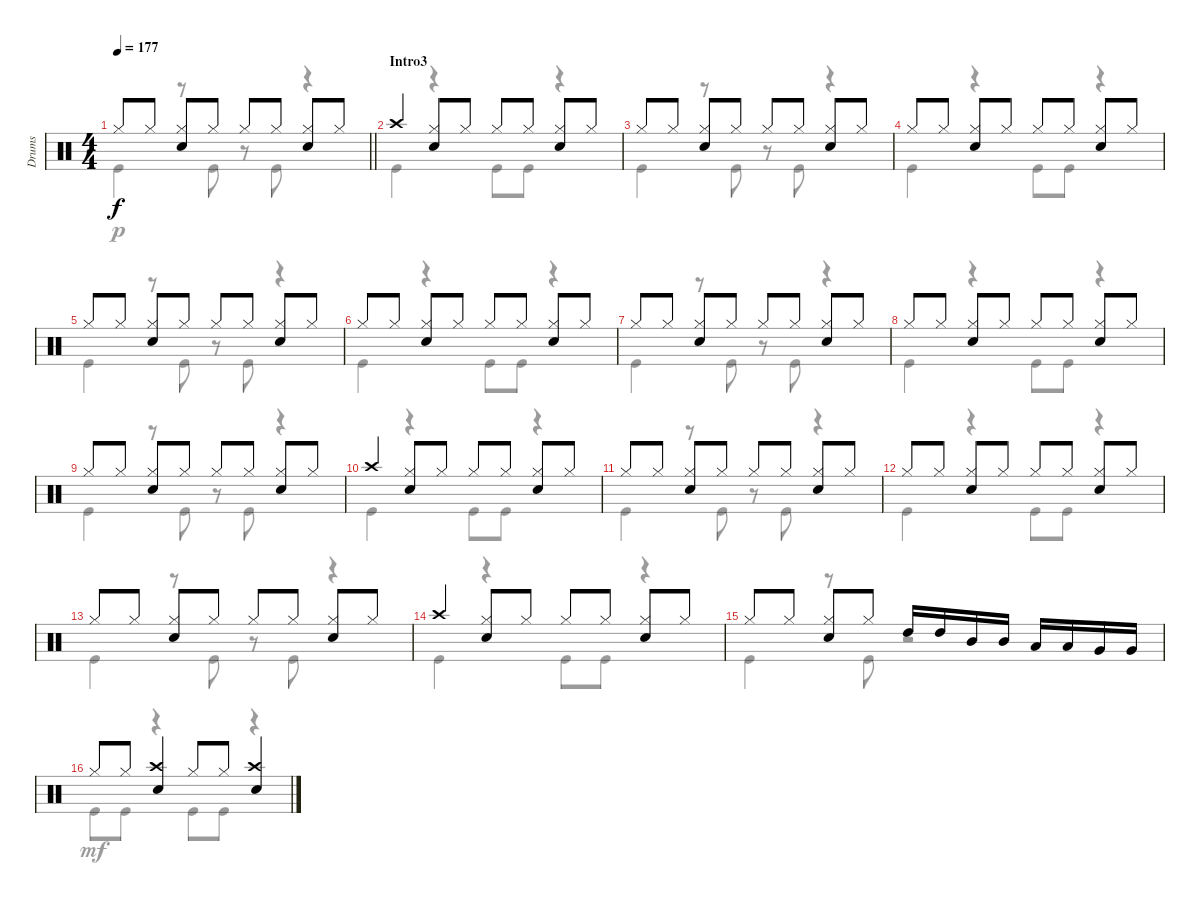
\track ("Drums" "Drums") {instrument percussion}
\staff {score}
\articulation defaults
\voice
\ts (4 4)
\tempo 177
\clef neutral
\barLineRight lightlight
\ks c "Hi-Hat (closed)".8{dy f} "Hi-Hat (closed)".8
("Hi-Hat (closed)" "Snare (hit) 2").8 "Hi-Hat (closed)".8 "Hi-Hat (closed)".8 "Hi-Hat (closed)".8 ("Hi-Hat (closed)" "Snare (hit) 2").8 "Hi-Hat (closed)".8 |
\section ("" "Intro3")
"Crash high (hit)".4 ("Hi-Hat (closed)" "Snare (hit) 2").8 "Hi-Hat (closed)".8 "Hi-Hat (closed)".8 "Hi-Hat (closed)".8 ("Hi-Hat (closed)" "Snare (hit) 2").8 "Hi-Hat (closed)".8 |
"Hi-Hat (closed)".8 "Hi-Hat (closed)".8 ("Hi-Hat (closed)" "Snare (hit) 2").8 "Hi-Hat (closed)".8 "Hi-Hat (closed)".8 "Hi-Hat (closed)".8 ("Hi-Hat (closed)" "Snare (hit) 2").8 "Hi-Hat (closed)".8 |
"Hi-Hat (closed)".8 "Hi-Hat (closed)".8 ("Hi-Hat (closed)" "Snare (hit) 2").8 "Hi-Hat (closed)".8 "Hi-Hat (closed)".8 "Hi-Hat (closed)".8 ("Hi-Hat (closed)" "Snare (hit) 2").8 "Hi-Hat (closed)".8 |
"Hi-Hat (closed)".8 "Hi-Hat (closed)".8 ("Hi-Hat (closed)" "Snare (hit) 2").8 "Hi-Hat (closed)".8 "Hi-Hat (closed)".8 "Hi-Hat (closed)".8 ("Hi-Hat (closed)" "Snare (hit) 2").8 "Hi-Hat (closed)".8 |
"Hi-Hat (closed)".8 "Hi-Hat (closed)".8 ("Hi-Hat (closed)" "Snare (hit) 2").8 "Hi-Hat (closed)".8 "Hi-Hat (closed)".8 "Hi-Hat (closed)".8 ("Hi-Hat (closed)" "Snare (hit) 2").8 "Hi-Hat (closed)".8 |
"Hi-Hat (closed)".8 "Hi-Hat (closed)".8 ("Hi-Hat (closed)" "Snare (hit) 2").8 "Hi-Hat (closed)".8 "Hi-Hat (closed)".8 "Hi-Hat (closed)".8 ("Hi-Hat (closed)" "Snare (hit) 2").8 "Hi-Hat (closed)".8 |
"Hi-Hat (closed)".8 "Hi-Hat (closed)".8 ("Hi-Hat (closed)" "Snare (hit) 2").8 "Hi-Hat (closed)".8 "Hi-Hat (closed)".8 "Hi-Hat (closed)".8 ("Hi-Hat (closed)" "Snare (hit) 2").8 "Hi-Hat (closed)".8 |
"Hi-Hat (closed)".8 "Hi-Hat (closed)".8 ("Hi-Hat (closed)" "Snare (hit) 2").8 "Hi-Hat (closed)".8 "Hi-Hat (closed)".8 "Hi-Hat (closed)".8 ("Hi-Hat (closed)" "Snare (hit) 2").8 "Hi-Hat (closed)".8 |
"Crash high (hit)".4 ("Hi-Hat (closed)" "Snare (hit) 2").8 "Hi-Hat (closed)".8 "Hi-Hat (closed)".8 "Hi-Hat (closed)".8 ("Hi-Hat (closed)" "Snare (hit) 2").8 "Hi-Hat (closed)".8 |
"Hi-Hat (closed)".8 "Hi-Hat (closed)".8 ("Hi-Hat (closed)" "Snare (hit) 2").8 "Hi-Hat (closed)".8 "Hi-Hat (closed)".8 "Hi-Hat (closed)".8 ("Hi-Hat (closed)" "Snare (hit) 2").8 "Hi-Hat (closed)".8 |
"Hi-Hat (closed)".8 "Hi-Hat (closed)".8 ("Hi-Hat (closed)" "Snare (hit) 2").8 "Hi-Hat (closed)".8 "Hi-Hat (closed)".8 "Hi-Hat (closed)".8 ("Hi-Hat (closed)" "Snare (hit) 2").8 "Hi-Hat (closed)".8 |
"Hi-Hat (closed)".8 "Hi-Hat (closed)".8 ("Hi-Hat (closed)" "Snare (hit) 2").8 "Hi-Hat (closed)".8 "Hi-Hat (closed)".8 "Hi-Hat (closed)".8 ("Hi-Hat (closed)" "Snare (hit) 2").8 "Hi-Hat (closed)".8 |
"Crash high (hit)".4 ("Hi-Hat (closed)" "Snare (hit) 2").8 "Hi-Hat (closed)".8 "Hi-Hat (closed)".8 "Hi-Hat (closed)".8 ("Hi-Hat (closed)" "Snare (hit) 2").8 "Hi-Hat (closed)".8 |
"Hi-Hat (closed)".8 "Hi-Hat (closed)".8 ("Hi-Hat (closed)" "Snare (hit) 2").8 "Hi-Hat (closed)".8 "High Tom (hit)".16 "High Tom (hit)".16 "Mid Tom (hit)".16 "Mid Tom (hit)".16 "Low Tom (hit)".16 "Low Tom (hit)".16 "Very Low Tom (hit)".16 "Very Low Tom (hit)".16 |
"Hi-Hat (closed)".8 "Hi-Hat (closed)".8 ("Crash high (hit)" "Snare (hit) 2").4 "Hi-Hat (closed)".8 "Hi-Hat (closed)".8 ("Crash high (hit)" "Snare (hit) 2").4
\voice
\clef neutral
\ottava regular
\simile none
\barLineRight lightlight
\ks c "Kick (hit)".4{dy p}
r.8 "Kick (hit)".8 r.8 "Kick (hit)".8 r.4 |
"Kick (hit)".4 r.4 "Kick (hit)".8 "Kick (hit)".8 r.4 |
"Kick (hit)".4 r.8 "Kick (hit)".8 r.8 "Kick (hit)".8 r.4 |
"Kick (hit)".4 r.4 "Kick (hit)".8 "Kick (hit)".8 r.4 |
"Kick (hit)".4 r.8 "Kick (hit)".8 r.8 "Kick (hit)".8 r.4 |
"Kick (hit)".4 r.4 "Kick (hit)".8 "Kick (hit)".8 r.4 |
"Kick (hit)".4 r.8 "Kick (hit)".8 r.8 "Kick (hit)".8 r.4 |
"Kick (hit)".4 r.4 "Kick (hit)".8 "Kick (hit)".8 r.4 |
"Kick (hit)".4 r.8 "Kick (hit)".8 r.8 "Kick (hit)".8 r.4 |
"Kick (hit)".4 r.4 "Kick (hit)".8 "Kick (hit)".8 r.4 |
"Kick (hit)".4 r.8 "Kick (hit)".8 r.8 "Kick (hit)".8 r.4 |
"Kick (hit)".4 r.4 "Kick (hit)".8 "Kick (hit)".8 r.4 |
"Kick (hit)".4 r.8 "Kick (hit)".8 r.8 "Kick (hit)".8 r.4 |
"Kick (hit)".4 r.4 "Kick (hit)".8 "Kick (hit)".8 r.4 |
"Kick (hit)".4 r.8 "Kick (hit)".8 r.2 |
"Kick (hit)".8{dy mf} "Kick (hit)".8 r.4 "Kick (hit)".8 "Kick (hit)".8 r.4
